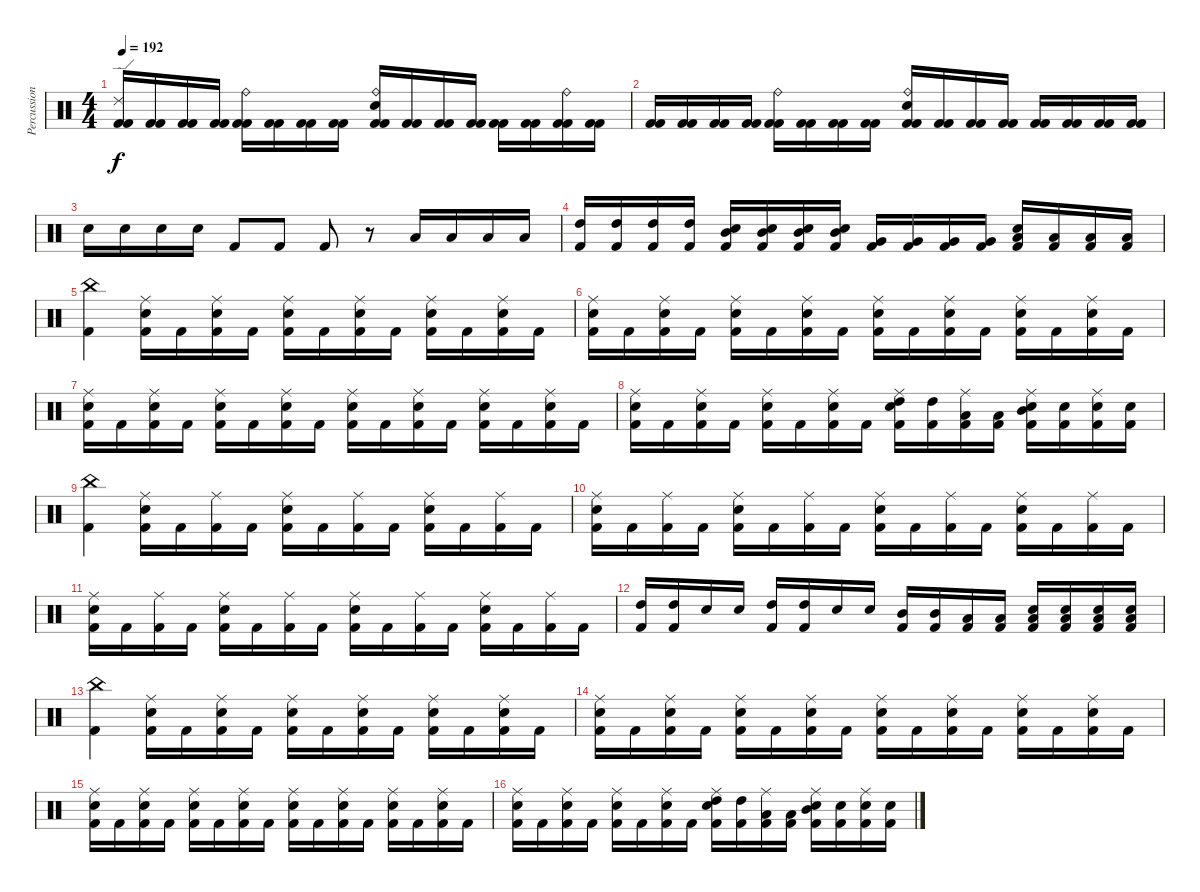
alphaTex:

\track ("Percussion" "Percussion") {instrument percussion}
\staff {score}
\articulation defaults
\ts (4 4)
\tempo 192
\clef neutral
\ks c
("Kick (hit) 2" "Ride (edge) 2" "Kick (hit) 2").16{dy f} ("Kick (hit) 2" "Kick (hit) 2").16 ("Kick (hit) 2" "Kick (hit) 2").16 ("Kick (hit) 2" "Kick (hit) 2").16 ("Kick (hit) 2" "Ride (bell)" "Kick (hit) 2").16 ("Kick (hit) 2" "Kick (hit) 2").16 ("Kick (hit) 2" "Kick (hit) 2").16 ("Kick (hit) 2" "Kick (hit) 2").16 ("Kick (hit) 2" "Ride (bell)" "Electric Snare (hit)" "Kick (hit) 2").16 ("Kick (hit) 2" "Kick (hit) 2").16 ("Kick (hit) 2" "Kick (hit) 2").16 ("Kick (hit) 2" "Kick (hit) 2").16 ("Kick (hit) 2" "Kick (hit) 2").16 ("Kick (hit) 2" "Kick (hit) 2").16 ("Kick (hit) 2" "Ride (bell)" "Kick (hit) 2").16 ("Kick (hit) 2" "Kick (hit) 2").16 |
("Kick (hit) 2" "Kick (hit) 2").16 ("Kick (hit) 2" "Kick (hit) 2").16 ("Kick (hit) 2" "Kick (hit) 2").16 ("Kick (hit) 2" "Kick (hit) 2").16 ("Kick (hit) 2" "Ride (bell)" "Kick (hit) 2").16 ("Kick (hit) 2" "Kick (hit) 2").16 ("Kick (hit) 2" "Kick (hit) 2").16 ("Kick (hit) 2" "Kick (hit) 2").16 ("Kick (hit) 2" "Ride (bell)" "Electric Snare (hit)" "Kick (hit) 2").16 ("Kick (hit) 2" "Kick (hit) 2").16 ("Kick (hit) 2" "Kick (hit) 2").16 ("Kick (hit) 2" "Kick (hit) 2").16 ("Kick (hit) 2" "Kick (hit) 2").16 ("Kick (hit) 2" "Kick (hit) 2").16 ("Kick (hit) 2" "Kick (hit) 2").16 ("Kick (hit) 2" "Kick (hit) 2").16 |
"Electric Snare (hit)".16 "Electric Snare (hit)".16 "Electric Snare (hit)".16 "Electric Snare (hit)".16 "Kick (hit) 2".8 "Kick (hit) 2".8 "Kick (hit) 2".8 r.8 "Low Tom (hit)".16 "Low Tom (hit)".16 "Low Tom (hit)".16 "Low Tom (hit)".16 |
("High Tom (hit)" "Kick (hit) 2").16 ("High Tom (hit)" "Kick (hit) 2").16 ("High Tom (hit)" "Kick (hit) 2").16 ("High Tom (hit)" "Kick (hit) 2").16 ("Mid Tom (hit)" "Electric Snare (hit)" "Kick (hit) 2").16 ("Mid Tom (hit)" "Electric Snare (hit)" "Kick (hit) 2").16 ("Mid Tom (hit)" "Electric Snare (hit)" "Kick (hit) 2").16 ("Mid Tom (hit)" "Electric Snare (hit)" "Kick (hit) 2").16 ("Very Low Tom (hit)" "Kick (hit) 2").16 ("Very Low Tom (hit)" "Kick (hit) 2").16 ("Very Low Tom (hit)" "Kick (hit) 2").16 ("Very Low Tom (hit)" "Kick (hit) 2").16 ("Low Floor Tom (hit)" "Electric Snare (hit)" "Kick (hit) 2").16 ("Low Floor Tom (hit)" "Kick (hit) 2").16 ("Low Floor Tom (hit)" "Kick (hit) 2").16 ("Low Floor Tom (hit)" "Kick (hit) 2").16 |
("China (hit)" "Kick (hit) 2").4 ("Ride (middle)" "Electric Snare (hit)" "Kick (hit) 2").16 "Kick (hit) 2".16 ("Ride (middle)" "Electric Snare (hit)" "Kick (hit) 2").16 "Kick (hit) 2".16 ("Ride (middle)" "Electric Snare (hit)" "Kick (hit) 2").16 "Kick (hit) 2".16 ("Ride (middle)" "Electric Snare (hit)" "Kick (hit) 2").16 "Kick (hit) 2".16 ("Ride (middle)" "Electric Snare (hit)" "Kick (hit) 2").16 "Kick (hit) 2".16 ("Ride (middle)" "Electric Snare (hit)" "Kick (hit) 2").16 "Kick (hit) 2".16 |
("Ride (middle)" "Electric Snare (hit)" "Kick (hit) 2").16 "Kick (hit) 2".16 ("Ride (middle)" "Electric Snare (hit)" "Kick (hit) 2").16 "Kick (hit) 2".16 ("Ride (middle)" "Electric Snare (hit)" "Kick (hit) 2").16 "Kick (hit) 2".16 ("Ride (middle)" "Electric Snare (hit)" "Kick (hit) 2").16 "Kick (hit) 2".16 ("Ride (middle)" "Electric Snare (hit)" "Kick (hit) 2").16 "Kick (hit) 2".16 ("Ride (middle)" "Electric Snare (hit)" "Kick (hit) 2").16 "Kick (hit) 2".16 ("Ride (middle)" "Electric Snare (hit)" "Kick (hit) 2").16 "Kick (hit) 2".16 ("Ride (middle)" "Electric Snare (hit)" "Kick (hit) 2").16 "Kick (hit) 2".16 |
("Ride (middle)" "Electric Snare (hit)" "Kick (hit) 2").16 "Kick (hit) 2".16 ("Ride (middle)" "Electric Snare (hit)" "Kick (hit) 2").16 "Kick (hit) 2".16 ("Ride (middle)" "Electric Snare (hit)" "Kick (hit) 2").16 "Kick (hit) 2".16 ("Ride (middle)" "Electric Snare (hit)" "Kick (hit) 2").16 "Kick (hit) 2".16 ("Ride (middle)" "Electric Snare (hit)" "Kick (hit) 2").16 "Kick (hit) 2".16 ("Ride (middle)" "Electric Snare (hit)" "Kick (hit) 2").16 "Kick (hit) 2".16 ("Ride (middle)" "Electric Snare (hit)" "Kick (hit) 2").16 "Kick (hit) 2".16 ("Ride (middle)" "Electric Snare (hit)" "Kick (hit) 2").16 "Kick (hit) 2".16 |
("Ride (middle)" "Electric Snare (hit)" "Kick (hit) 2").16 "Kick (hit) 2".16 ("Ride (middle)" "Electric Snare (hit)" "Kick (hit) 2").16 "Kick (hit) 2".16 ("Ride (middle)" "Electric Snare (hit)" "Kick (hit) 2").16 "Kick (hit) 2".16 ("Ride (middle)" "Electric Snare (hit)" "Kick (hit) 2").16 "Kick (hit) 2".16 ("Ride (middle)" "Electric Snare (hit)" "High Tom (hit)" "Kick (hit) 2").16 ("High Tom (hit)" "Kick (hit) 2").16 ("Ride (middle)" "Low Floor Tom (hit)" "Kick (hit) 2").16 ("Low Floor Tom (hit)" "Kick (hit) 2").16 ("Ride (middle)" "Electric Snare (hit)" "Mid Tom (hit)" "Kick (hit) 2").16 ("Electric Snare (hit)" "Kick (hit) 2").16 ("Ride (middle)" "Electric Snare (hit)" "Kick (hit) 2").16 ("Electric Snare (hit)" "Kick (hit) 2").16 |
("China (hit)" "Kick (hit) 2").4 ("Ride (middle)" "Electric Snare (hit)" "Kick (hit) 2").16 "Kick (hit) 2".16 ("Ride (middle)" "Kick (hit) 2").16 "Kick (hit) 2".16 ("Ride (middle)" "Electric Snare (hit)" "Kick (hit) 2").16 "Kick (hit) 2".16 ("Ride (middle)" "Kick (hit) 2").16 "Kick (hit) 2".16 ("Ride (middle)" "Electric Snare (hit)" "Kick (hit) 2").16 "Kick (hit) 2".16 ("Ride (middle)" "Kick (hit) 2").16 "Kick (hit) 2".16 |
("Ride (middle)" "Electric Snare (hit)" "Kick (hit) 2").16 "Kick (hit) 2".16 ("Ride (middle)" "Kick (hit) 2").16 "Kick (hit) 2".16 ("Ride (middle)" "Electric Snare (hit)" "Kick (hit) 2").16 "Kick (hit) 2".16 ("Ride (middle)" "Kick (hit) 2").16 "Kick (hit) 2".16 ("Ride (middle)" "Electric Snare (hit)" "Kick (hit) 2").16 "Kick (hit) 2".16 ("Ride (middle)" "Kick (hit) 2").16 "Kick (hit) 2".16 ("Ride (middle)" "Electric Snare (hit)" "Kick (hit) 2").16 "Kick (hit) 2".16 ("Ride (middle)" "Kick (hit) 2").16 "Kick (hit) 2".16 |
("Ride (middle)" "Electric Snare (hit)" "Kick (hit) 2").16 "Kick (hit) 2".16 ("Ride (middle)" "Kick (hit) 2").16 "Kick (hit) 2".16 ("Ride (middle)" "Electric Snare (hit)" "Kick (hit) 2").16 "Kick (hit) 2".16 ("Ride (middle)" "Kick (hit) 2").16 "Kick (hit) 2".16 ("Ride (middle)" "Electric Snare (hit)" "Kick (hit) 2").16 "Kick (hit) 2".16 ("Ride (middle)" "Kick (hit) 2").16 "Kick (hit) 2".16 ("Ride (middle)" "Electric Snare (hit)" "Kick (hit) 2").16 "Kick (hit) 2".16 ("Ride (middle)" "Kick (hit) 2").16 "Kick (hit) 2".16 |
("High Tom (hit)" "Kick (hit) 2").16 ("High Tom (hit)" "Kick (hit) 2").16 "Electric Snare (hit)".16 "Electric Snare (hit)".16 ("High Tom (hit)" "Kick (hit) 2").16 ("High Tom (hit)" "Kick (hit) 2").16 "Electric Snare (hit)".16 "Electric Snare (hit)".16 ("Mid Tom (hit)" "Kick (hit) 2").16 ("Mid Tom (hit)" "Kick (hit) 2").16 ("Low Tom (hit)" "Kick (hit) 2").16 ("Low Tom (hit)" "Kick (hit) 2").16 ("Low Floor Tom (hit)" "Snare (hit) 2" "Kick (hit) 2").16 ("Low Floor Tom (hit)" "Snare (hit) 2" "Kick (hit) 2").16 ("Low Tom (hit)" "Snare (hit) 2" "Kick (hit) 2").16 ("Low Tom (hit)" "Snare (hit) 2" "Kick (hit) 2").16 |
("China (hit)" "Kick (hit) 2").4 ("Ride (middle)" "Electric Snare (hit)" "Kick (hit) 2").16 "Kick (hit) 2".16 ("Ride (middle)" "Electric Snare (hit)" "Kick (hit) 2").16 "Kick (hit) 2".16 ("Ride (middle)" "Electric Snare (hit)" "Kick (hit) 2").16 "Kick (hit) 2".16 ("Ride (middle)" "Electric Snare (hit)" "Kick (hit) 2").16 "Kick (hit) 2".16 ("Ride (middle)" "Electric Snare (hit)" "Kick (hit) 2").16 "Kick (hit) 2".16 ("Ride (middle)" "Electric Snare (hit)" "Kick (hit) 2").16 "Kick (hit) 2".16 |
("Ride (middle)" "Electric Snare (hit)" "Kick (hit) 2").16 "Kick (hit) 2".16 ("Ride (middle)" "Electric Snare (hit)" "Kick (hit) 2").16 "Kick (hit) 2".16 ("Ride (middle)" "Electric Snare (hit)" "Kick (hit) 2").16 "Kick (hit) 2".16 ("Ride (middle)" "Electric Snare (hit)" "Kick (hit) 2").16 "Kick (hit) 2".16 ("Ride (middle)" "Electric Snare (hit)" "Kick (hit) 2").16 "Kick (hit) 2".16 ("Ride (middle)" "Electric Snare (hit)" "Kick (hit) 2").16 "Kick (hit) 2".16 ("Ride (middle)" "Electric Snare (hit)" "Kick (hit) 2").16 "Kick (hit) 2".16 ("Ride (middle)" "Electric Snare (hit)" "Kick (hit) 2").16 "Kick (hit) 2".16 |
("Ride (middle)" "Electric Snare (hit)" "Kick (hit) 2").16 "Kick (hit) 2".16 ("Ride (middle)" "Electric Snare (hit)" "Kick (hit) 2").16 "Kick (hit) 2".16 ("Ride (middle)" "Electric Snare (hit)" "Kick (hit) 2").16 "Kick (hit) 2".16 ("Ride (middle)" "Electric Snare (hit)" "Kick (hit) 2").16 "Kick (hit) 2".16 ("Ride (middle)" "Electric Snare (hit)" "Kick (hit) 2").16 "Kick (hit) 2".16 ("Ride (middle)" "Electric Snare (hit)" "Kick (hit) 2").16 "Kick (hit) 2".16 ("Ride (middle)" "Electric Snare (hit)" "Kick (hit) 2").16 "Kick (hit) 2".16 ("Ride (middle)" "Electric Snare (hit)" "Kick (hit) 2").16 "Kick (hit) 2".16 |
("Ride (middle)" "Electric Snare (hit)" "Kick (hit) 2").16 "Kick (hit) 2".16 ("Ride (middle)" "Electric Snare (hit)" "Kick (hit) 2").16 "Kick (hit) 2".16 ("Ride (middle)" "Electric Snare (hit)" "Kick (hit) 2").16 "Kick (hit) 2".16 ("Ride (middle)" "Electric Snare (hit)" "Kick (hit) 2").16 "Kick (hit) 2".16 ("Ride (middle)" "Electric Snare (hit)" "High Tom (hit)" "Kick (hit) 2").16 ("High Tom (hit)" "Kick (hit) 2").16 ("Ride (middle)" "Low Floor Tom (hit)" "Kick (hit) 2").16 ("Low Floor Tom (hit)" "Kick (hit) 2").16 ("Ride (middle)" "Electric Snare (hit)" "Mid Tom (hit)" "Kick (hit) 2").16 ("Electric Snare (hit)" "Kick (hit) 2").16 ("Ride (middle)" "Electric Snare (hit)" "Kick (hit) 2").16 ("Electric Snare (hit)" "Kick (hit) 2").16
